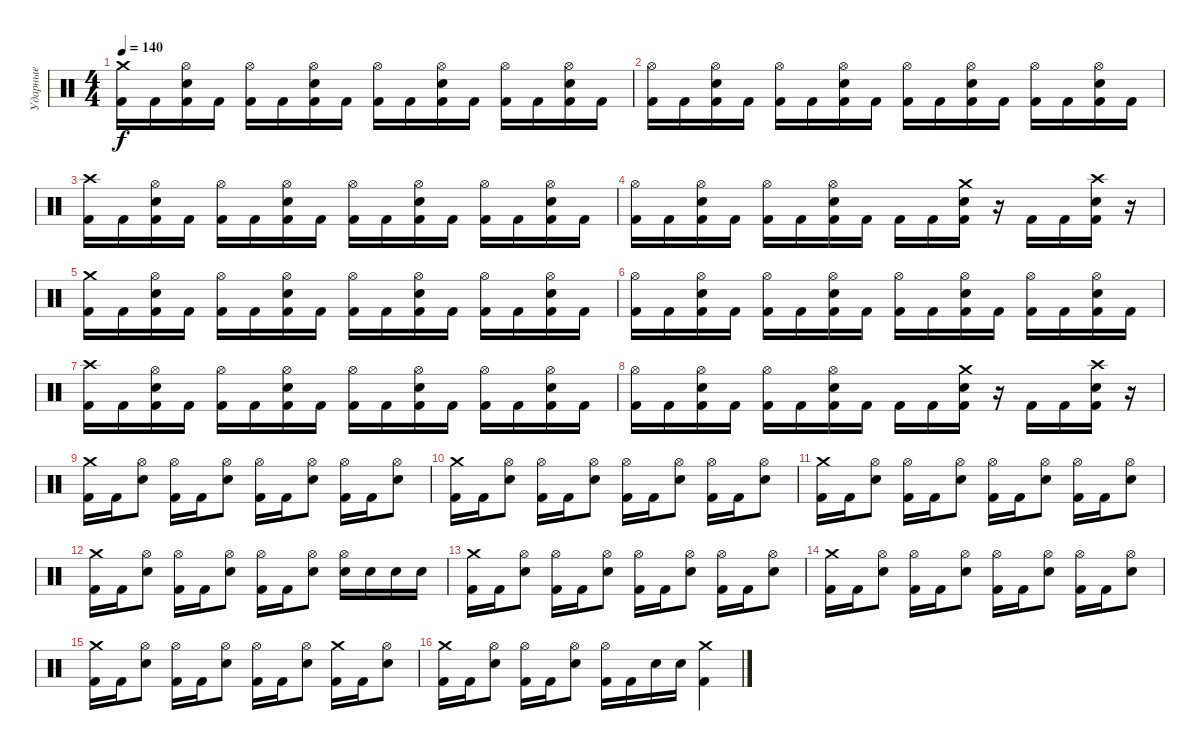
\track ("Ударные" "Ударные") {instrument percussion}
\staff {score}
\articulation defaults
\ts (4 4)
\tempo 140
\clef neutral
\ks c
("Crash medium (hit)" "Kick (hit) 2").16{dy f} "Kick (hit) 2".16 ("Hi-Hat (open)" "Snare (hit) 2" "Kick (hit) 2").16 "Kick (hit) 2".16 ("Hi-Hat (open)" "Kick (hit) 2").16 "Kick (hit) 2".16 ("Hi-Hat (open)" "Snare (hit) 2" "Kick (hit) 2").16 "Kick (hit) 2".16 ("Hi-Hat (open)" "Kick (hit) 2").16 "Kick (hit) 2".16 ("Hi-Hat (open)" "Snare (hit) 2" "Kick (hit) 2").16 "Kick (hit) 2".16 ("Hi-Hat (open)" "Kick (hit) 2").16 "Kick (hit) 2".16 ("Hi-Hat (open)" "Snare (hit) 2" "Kick (hit) 2").16 "Kick (hit) 2".16 |
("Hi-Hat (open)" "Kick (hit) 2").16 "Kick (hit) 2".16 ("Hi-Hat (open)" "Snare (hit) 2" "Kick (hit) 2").16 "Kick (hit) 2".16 ("Hi-Hat (open)" "Kick (hit) 2").16 "Kick (hit) 2".16 ("Hi-Hat (open)" "Snare (hit) 2" "Kick (hit) 2").16 "Kick (hit) 2".16 ("Hi-Hat (open)" "Kick (hit) 2").16 "Kick (hit) 2".16 ("Hi-Hat (open)" "Snare (hit) 2" "Kick (hit) 2").16 "Kick (hit) 2".16 ("Hi-Hat (open)" "Kick (hit) 2").16 "Kick (hit) 2".16 ("Hi-Hat (open)" "Snare (hit) 2" "Kick (hit) 2").16 "Kick (hit) 2".16 |
("Crash high (hit)" "Kick (hit) 2").16 "Kick (hit) 2".16 ("Hi-Hat (open)" "Snare (hit) 2" "Kick (hit) 2").16 "Kick (hit) 2".16 ("Hi-Hat (open)" "Kick (hit) 2").16 "Kick (hit) 2".16 ("Hi-Hat (open)" "Snare (hit) 2" "Kick (hit) 2").16 "Kick (hit) 2".16 ("Hi-Hat (open)" "Kick (hit) 2").16 "Kick (hit) 2".16 ("Hi-Hat (open)" "Snare (hit) 2" "Kick (hit) 2").16 "Kick (hit) 2".16 ("Hi-Hat (open)" "Kick (hit) 2").16 "Kick (hit) 2".16 ("Hi-Hat (open)" "Snare (hit) 2" "Kick (hit) 2").16 "Kick (hit) 2".16 |
("Hi-Hat (open)" "Kick (hit) 2").16 "Kick (hit) 2".16 ("Hi-Hat (open)" "Snare (hit) 2" "Kick (hit) 2").16 "Kick (hit) 2".16 ("Hi-Hat (open)" "Kick (hit) 2").16 "Kick (hit) 2".16 ("Hi-Hat (open)" "Snare (hit) 2" "Kick (hit) 2").16 "Kick (hit) 2".16 "Kick (hit) 2".16 "Kick (hit) 2".16 ("Crash medium (hit)" "Snare (hit) 2" "Kick (hit) 2").16 r.16 "Kick (hit) 2".16 "Kick (hit) 2".16 ("Crash high (hit)" "Snare (hit) 2" "Kick (hit) 2").16 r.16 |
("Crash medium (hit)" "Kick (hit) 2").16 "Kick (hit) 2".16 ("Hi-Hat (open)" "Snare (hit) 2" "Kick (hit) 2").16 "Kick (hit) 2".16 ("Hi-Hat (open)" "Kick (hit) 2").16 "Kick (hit) 2".16 ("Hi-Hat (open)" "Snare (hit) 2" "Kick (hit) 2").16 "Kick (hit) 2".16 ("Hi-Hat (open)" "Kick (hit) 2").16 "Kick (hit) 2".16 ("Hi-Hat (open)" "Snare (hit) 2" "Kick (hit) 2").16 "Kick (hit) 2".16 ("Hi-Hat (open)" "Kick (hit) 2").16 "Kick (hit) 2".16 ("Hi-Hat (open)" "Snare (hit) 2" "Kick (hit) 2").16 "Kick (hit) 2".16 |
("Hi-Hat (open)" "Kick (hit) 2").16 "Kick (hit) 2".16 ("Hi-Hat (open)" "Snare (hit) 2" "Kick (hit) 2").16 "Kick (hit) 2".16 ("Hi-Hat (open)" "Kick (hit) 2").16 "Kick (hit) 2".16 ("Hi-Hat (open)" "Snare (hit) 2" "Kick (hit) 2").16 "Kick (hit) 2".16 ("Hi-Hat (open)" "Kick (hit) 2").16 "Kick (hit) 2".16 ("Hi-Hat (open)" "Snare (hit) 2" "Kick (hit) 2").16 "Kick (hit) 2".16 ("Hi-Hat (open)" "Kick (hit) 2").16 "Kick (hit) 2".16 ("Hi-Hat (open)" "Snare (hit) 2" "Kick (hit) 2").16 "Kick (hit) 2".16 |
("Crash high (hit)" "Kick (hit) 2").16 "Kick (hit) 2".16 ("Hi-Hat (open)" "Snare (hit) 2" "Kick (hit) 2").16 "Kick (hit) 2".16 ("Hi-Hat (open)" "Kick (hit) 2").16 "Kick (hit) 2".16 ("Hi-Hat (open)" "Snare (hit) 2" "Kick (hit) 2").16 "Kick (hit) 2".16 ("Hi-Hat (open)" "Kick (hit) 2").16 "Kick (hit) 2".16 ("Hi-Hat (open)" "Snare (hit) 2" "Kick (hit) 2").16 "Kick (hit) 2".16 ("Hi-Hat (open)" "Kick (hit) 2").16 "Kick (hit) 2".16 ("Hi-Hat (open)" "Snare (hit) 2" "Kick (hit) 2").16 "Kick (hit) 2".16 |
("Hi-Hat (open)" "Kick (hit) 2").16 "Kick (hit) 2".16 ("Hi-Hat (open)" "Snare (hit) 2" "Kick (hit) 2").16 "Kick (hit) 2".16 ("Hi-Hat (open)" "Kick (hit) 2").16 "Kick (hit) 2".16 ("Hi-Hat (open)" "Snare (hit) 2" "Kick (hit) 2").16 "Kick (hit) 2".16 "Kick (hit) 2".16 "Kick (hit) 2".16 ("Crash medium (hit)" "Snare (hit) 2" "Kick (hit) 2").16 r.16 "Kick (hit) 2".16 "Kick (hit) 2".16 ("Crash high (hit)" "Snare (hit) 2" "Kick (hit) 2").16 r.16 |
("Crash medium (hit)" "Kick (hit) 2").16 "Kick (hit) 2".16 ("Hi-Hat (open)" "Snare (hit) 2").8 ("Hi-Hat (open)" "Kick (hit) 2").16 "Kick (hit) 2".16 ("Hi-Hat (open)" "Snare (hit) 2").8 ("Hi-Hat (open)" "Kick (hit) 2").16 "Kick (hit) 2".16 ("Hi-Hat (open)" "Snare (hit) 2").8 ("Hi-Hat (open)" "Kick (hit) 2").16 "Kick (hit) 2".16 ("Hi-Hat (open)" "Snare (hit) 2").8 |
("Crash medium (hit)" "Kick (hit) 2").16 "Kick (hit) 2".16 ("Hi-Hat (open)" "Snare (hit) 2").8 ("Hi-Hat (open)" "Kick (hit) 2").16 "Kick (hit) 2".16 ("Hi-Hat (open)" "Snare (hit) 2").8 ("Hi-Hat (open)" "Kick (hit) 2").16 "Kick (hit) 2".16 ("Hi-Hat (open)" "Snare (hit) 2").8 ("Hi-Hat (open)" "Kick (hit) 2").16 "Kick (hit) 2".16 ("Hi-Hat (open)" "Snare (hit) 2").8 |
("Crash medium (hit)" "Kick (hit) 2").16 "Kick (hit) 2".16 ("Hi-Hat (open)" "Snare (hit) 2").8 ("Hi-Hat (open)" "Kick (hit) 2").16 "Kick (hit) 2".16 ("Hi-Hat (open)" "Snare (hit) 2").8 ("Hi-Hat (open)" "Kick (hit) 2").16 "Kick (hit) 2".16 ("Hi-Hat (open)" "Snare (hit) 2").8 ("Hi-Hat (open)" "Kick (hit) 2").16 "Kick (hit) 2".16 ("Hi-Hat (open)" "Snare (hit) 2").8 |
("Crash medium (hit)" "Kick (hit) 2").16 "Kick (hit) 2".16 ("Hi-Hat (open)" "Snare (hit) 2").8 ("Hi-Hat (open)" "Kick (hit) 2").16 "Kick (hit) 2".16 ("Hi-Hat (open)" "Snare (hit) 2").8 ("Hi-Hat (open)" "Kick (hit) 2").16 "Kick (hit) 2".16 ("Hi-Hat (open)" "Snare (hit) 2").8 ("Hi-Hat (open)" "Snare (hit) 2").16 "Snare (hit) 2".16 "Snare (hit) 2".16 "Snare (hit) 2".16 |
("Crash medium (hit)" "Kick (hit) 2").16 "Kick (hit) 2".16 ("Hi-Hat (open)" "Snare (hit) 2").8 ("Hi-Hat (open)" "Kick (hit) 2").16 "Kick (hit) 2".16 ("Hi-Hat (open)" "Snare (hit) 2").8 ("Hi-Hat (open)" "Kick (hit) 2").16 "Kick (hit) 2".16 ("Hi-Hat (open)" "Snare (hit) 2").8 ("Hi-Hat (open)" "Kick (hit) 2").16 "Kick (hit) 2".16 ("Hi-Hat (open)" "Snare (hit) 2").8 |
("Crash medium (hit)" "Kick (hit) 2").16 "Kick (hit) 2".16 ("Hi-Hat (open)" "Snare (hit) 2").8 ("Hi-Hat (open)" "Kick (hit) 2").16 "Kick (hit) 2".16 ("Hi-Hat (open)" "Snare (hit) 2").8 ("Hi-Hat (open)" "Kick (hit) 2").16 "Kick (hit) 2".16 ("Hi-Hat (open)" "Snare (hit) 2").8 ("Hi-Hat (open)" "Kick (hit) 2").16 "Kick (hit) 2".16 ("Hi-Hat (open)" "Snare (hit) 2").8 |
("Crash medium (hit)" "Kick (hit) 2").16 "Kick (hit) 2".16 ("Hi-Hat (open)" "Snare (hit) 2").8 ("Hi-Hat (open)" "Kick (hit) 2").16 "Kick (hit) 2".16 ("Hi-Hat (open)" "Snare (hit) 2").8 ("Hi-Hat (open)" "Kick (hit) 2").16 "Kick (hit) 2".16 ("Hi-Hat (open)" "Snare (hit) 2").8 ("Crash medium (hit)" "Kick (hit) 2").16 "Kick (hit) 2".16 ("Hi-Hat (open)" "Snare (hit) 2").8 |
("Crash medium (hit)" "Kick (hit) 2").16 "Kick (hit) 2".16 ("Hi-Hat (open)" "Snare (hit) 2").8 ("Hi-Hat (open)" "Kick (hit) 2").16 "Kick (hit) 2".16 ("Hi-Hat (open)" "Snare (hit) 2").8 ("Hi-Hat (open)" "Kick (hit) 2").16 "Kick (hit) 2".16 "Snare (hit) 2".16 "Snare (hit) 2".16 ("Crash medium (hit)" "Kick (hit) 2").4
